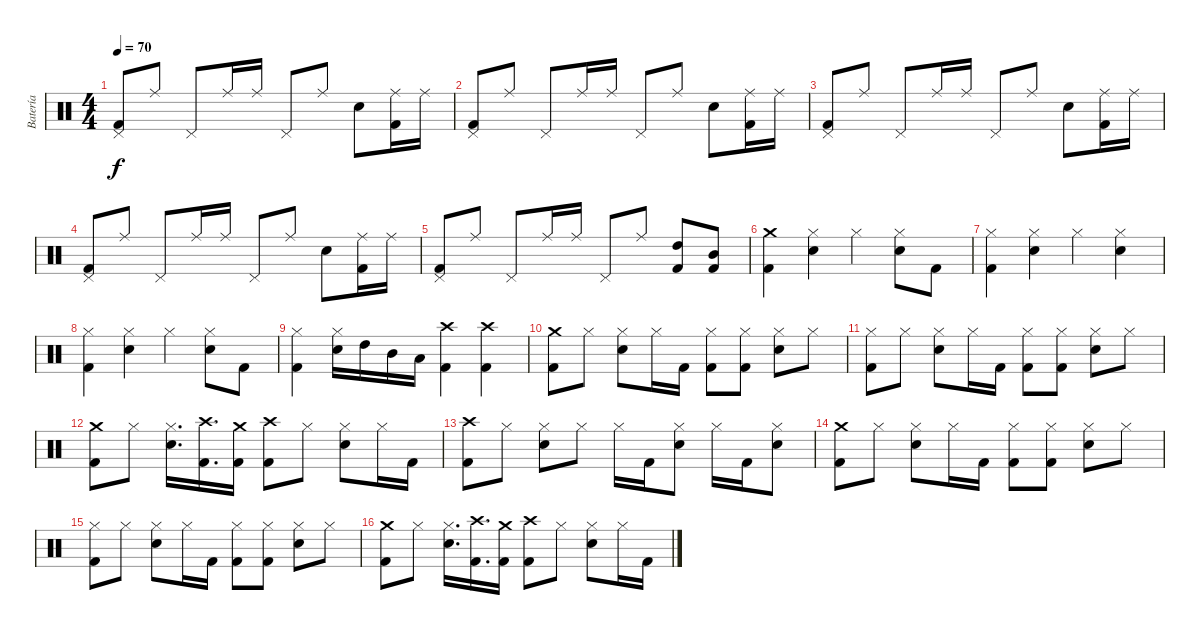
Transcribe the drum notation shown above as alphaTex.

\track ("Batería" "Batería") {instrument percussion}
\staff {score}
\articulation defaults
\ts (4 4)
\tempo 70
\clef neutral
\ks c
("Pedal Hi-Hat (hit)" "Kick (hit) 2").8{dy f} "Ride (middle)".8 "Pedal Hi-Hat (hit)".8 "Ride (middle)".16 "Ride (middle)".16 "Pedal Hi-Hat (hit)".8 "Ride (middle)".8 "Snare (hit) 2".8 ("Ride (middle)" "Kick (hit) 2").16 "Ride (middle)".16 |
("Pedal Hi-Hat (hit)" "Kick (hit) 2").8 "Ride (middle)".8 "Pedal Hi-Hat (hit)".8 "Ride (middle)".16 "Ride (middle)".16 "Pedal Hi-Hat (hit)".8 "Ride (middle)".8 "Snare (hit) 2".8 ("Ride (middle)" "Kick (hit) 2").16 "Ride (middle)".16 |
("Pedal Hi-Hat (hit)" "Kick (hit) 2").8 "Ride (middle)".8 "Pedal Hi-Hat (hit)".8 "Ride (middle)".16 "Ride (middle)".16 "Pedal Hi-Hat (hit)".8 "Ride (middle)".8 "Snare (hit) 2".8 ("Ride (middle)" "Kick (hit) 2").16 "Ride (middle)".16 |
("Pedal Hi-Hat (hit)" "Kick (hit) 2").8 "Ride (middle)".8 "Pedal Hi-Hat (hit)".8 "Ride (middle)".16 "Ride (middle)".16 "Pedal Hi-Hat (hit)".8 "Ride (middle)".8 "Snare (hit) 2".8 ("Ride (middle)" "Kick (hit) 2").16 "Ride (middle)".16 |
("Pedal Hi-Hat (hit)" "Kick (hit) 2").8 "Ride (middle)".8 "Pedal Hi-Hat (hit)".8 "Ride (middle)".16 "Ride (middle)".16 "Pedal Hi-Hat (hit)".8 "Ride (middle)".8 ("High Tom (hit)" "Kick (hit) 2").8 ("Mid Tom (hit)" "Kick (hit) 2").8 |
("Crash medium (hit)" "Kick (hit) 2").4 ("Hi-Hat (closed)" "Snare (hit) 2").4 "Hi-Hat (closed)".4 ("Hi-Hat (closed)" "Snare (hit) 2").8 "Kick (hit) 2".8 |
("Hi-Hat (closed)" "Kick (hit) 2").4 ("Hi-Hat (closed)" "Snare (hit) 2").4 "Hi-Hat (closed)".4 ("Hi-Hat (closed)" "Snare (hit) 2").4 |
("Hi-Hat (closed)" "Kick (hit) 2").4 ("Hi-Hat (closed)" "Snare (hit) 2").4 "Hi-Hat (closed)".4 ("Hi-Hat (closed)" "Snare (hit) 2").8 "Kick (hit) 2".8 |
("Hi-Hat (closed)" "Kick (hit) 2").4 ("Hi-Hat (closed)" "Snare (hit) 2").16 "High Tom (hit)".16 "Mid Tom (hit)".16 "Low Tom (hit)".16 ("Kick (hit) 2" "Crash high (hit)").4 ("Kick (hit) 2" "Crash high (hit)").4 |
("Kick (hit) 2" "Crash medium (hit)").8 "Hi-Hat (closed)".8 ("Snare (hit) 2" "Hi-Hat (closed)").8 "Hi-Hat (closed)".16 "Kick (hit) 2".16 ("Kick (hit) 2" "Hi-Hat (closed)").8 ("Kick (hit) 2" "Hi-Hat (closed)").8 ("Snare (hit) 2" "Hi-Hat (closed)").8 "Hi-Hat (closed)".8 |
("Kick (hit) 2" "Hi-Hat (closed)").8 "Hi-Hat (closed)".8 ("Snare (hit) 2" "Hi-Hat (closed)").8 "Hi-Hat (closed)".16 "Kick (hit) 2".16 ("Kick (hit) 2" "Hi-Hat (closed)").8 ("Kick (hit) 2" "Hi-Hat (closed)").8 ("Snare (hit) 2" "Hi-Hat (closed)").8 "Hi-Hat (closed)".8 |
("Kick (hit) 2" "Crash medium (hit)").8 "Hi-Hat (closed)".8 ("Snare (hit) 2" "Hi-Hat (closed)").16{d} ("Crash high (hit)" "Kick (hit) 2").16{d} ("Crash medium (hit)" "Kick (hit) 2").16 ("Crash high (hit)" "Kick (hit) 2").8 "Hi-Hat (closed)".8 ("Snare (hit) 2" "Hi-Hat (closed)").8 "Hi-Hat (closed)".16 "Kick (hit) 2".16 |
("Kick (hit) 2" "Crash high (hit)").8 "Hi-Hat (closed)".8 ("Snare (hit) 2" "Hi-Hat (closed)").8 "Hi-Hat (closed)".8 "Hi-Hat (closed)".16 "Kick (hit) 2".16 ("Snare (hit) 2" "Hi-Hat (closed)").8 "Hi-Hat (closed)".16 "Kick (hit) 2".16 ("Snare (hit) 2" "Hi-Hat (closed)").8 |
("Kick (hit) 2" "Crash medium (hit)").8 "Hi-Hat (closed)".8 ("Snare (hit) 2" "Hi-Hat (closed)").8 "Hi-Hat (closed)".16 "Kick (hit) 2".16 ("Kick (hit) 2" "Hi-Hat (closed)").8 ("Kick (hit) 2" "Hi-Hat (closed)").8 ("Snare (hit) 2" "Hi-Hat (closed)").8 "Hi-Hat (closed)".8 |
("Kick (hit) 2" "Hi-Hat (closed)").8 "Hi-Hat (closed)".8 ("Snare (hit) 2" "Hi-Hat (closed)").8 "Hi-Hat (closed)".16 "Kick (hit) 2".16 ("Kick (hit) 2" "Hi-Hat (closed)").8 ("Kick (hit) 2" "Hi-Hat (closed)").8 ("Snare (hit) 2" "Hi-Hat (closed)").8 "Hi-Hat (closed)".8 |
("Kick (hit) 2" "Crash medium (hit)").8 "Hi-Hat (closed)".8 ("Snare (hit) 2" "Hi-Hat (closed)").16{d} ("Crash high (hit)" "Kick (hit) 2").16{d} ("Crash medium (hit)" "Kick (hit) 2").16 ("Crash high (hit)" "Kick (hit) 2").8 "Hi-Hat (closed)".8 ("Snare (hit) 2" "Hi-Hat (closed)").8 "Hi-Hat (closed)".16 "Kick (hit) 2".16
